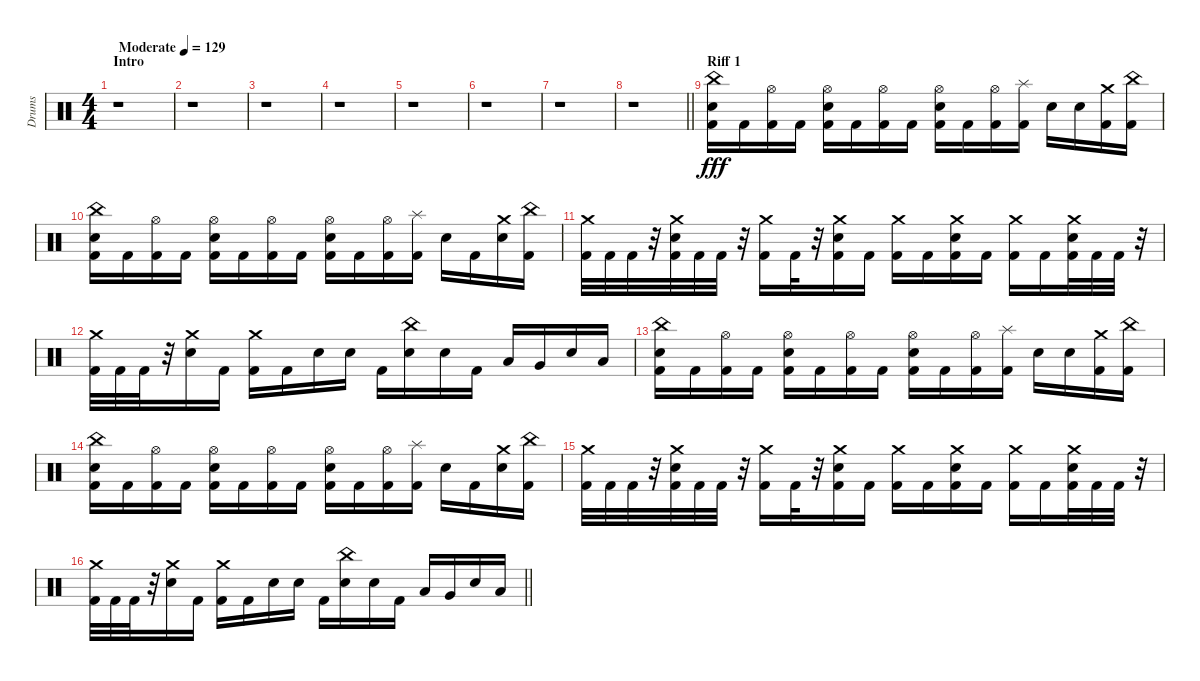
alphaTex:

\track ("Drums" "Drums") {instrument percussion}
\staff {score}
\articulation defaults
\ts (4 4)
\section ("" "Intro")
\tempo (129 "Moderate")
\clef neutral
\ks c
r.1{dy fff} |
r.1 |
r.1 |
r.1 |
r.1 |
r.1 |
r.1 |
\barLineRight lightlight
r.1 |
\section ("" "Riff 1")
("Kick (hit) 2" "Snare (hit) 2" "China (hit)").16 "Kick (hit) 2".16 ("Kick (hit) 2" "Hi-Hat (open)").16 "Kick (hit) 2".16 ("Kick (hit) 2" "Snare (hit) 2" "Hi-Hat (open)").16 "Kick (hit) 2".16 ("Kick (hit) 2" "Hi-Hat (open)").16 "Kick (hit) 2".16 ("Kick (hit) 2" "Snare (hit) 2" "Hi-Hat (open)").16 "Kick (hit) 2".16 ("Kick (hit) 2" "Hi-Hat (open)").16 ("Kick (hit) 2" "Splash (hit)").16 "Snare (hit) 2".16 "Snare (hit) 2".16 ("Kick (hit) 2" "Crash medium (hit)").16 ("Kick (hit) 2" "China (hit)").16 |
("Kick (hit) 2" "Snare (hit) 2" "China (hit)").16 "Kick (hit) 2".16 ("Kick (hit) 2" "Hi-Hat (open)").16 "Kick (hit) 2".16 ("Kick (hit) 2" "Snare (hit) 2" "Hi-Hat (open)").16 "Kick (hit) 2".16 ("Kick (hit) 2" "Hi-Hat (open)").16 "Kick (hit) 2".16 ("Kick (hit) 2" "Snare (hit) 2" "Hi-Hat (open)").16 "Kick (hit) 2".16 ("Kick (hit) 2" "Hi-Hat (open)").16 ("Kick (hit) 2" "Splash (hit)").16 "Snare (hit) 2".16 "Kick (hit) 2".16 ("Snare (hit) 2" "Crash medium (hit)").16 ("Kick (hit) 2" "China (hit)").16 |
("Kick (hit) 2" "Crash medium (hit)").32 "Kick (hit) 2".32 "Kick (hit) 2".32 r.32 ("Kick (hit) 2" "Snare (hit) 2" "Crash medium (hit)").32 "Kick (hit) 2".32 "Kick (hit) 2".32 r.32 ("Kick (hit) 2" "Crash medium (hit)").16 "Kick (hit) 2".32 r.32 ("Kick (hit) 2" "Snare (hit) 2" "Crash medium (hit)").16 "Kick (hit) 2".16 ("Kick (hit) 2" "Crash medium (hit)").16 "Kick (hit) 2".16 ("Kick (hit) 2" "Snare (hit) 2" "Crash medium (hit)").16 "Kick (hit) 2".16 ("Kick (hit) 2" "Crash medium (hit)").16 "Kick (hit) 2".16 ("Kick (hit) 2" "Snare (hit) 2" "Crash medium (hit)").32 "Kick (hit) 2".32 "Kick (hit) 2".32 r.32 |
("Kick (hit) 2" "Crash medium (hit)").32 "Kick (hit) 2".32 "Kick (hit) 2".32 r.32 ("Snare (hit) 2" "Crash medium (hit)").16 "Kick (hit) 2".16 ("Kick (hit) 2" "Crash medium (hit)").16 "Kick (hit) 2".16 "Snare (hit) 2".16 "Snare (hit) 2".16 "Kick (hit) 2".16 ("Snare (hit) 2" "China (hit)").16 "Snare (hit) 2".16 "Kick (hit) 2".16 "Low Tom (hit)".16 "Very Low Tom (hit)".16 "Snare (hit) 2".16 "Low Floor Tom (hit)".16 |
("Kick (hit) 2" "Snare (hit) 2" "China (hit)").16 "Kick (hit) 2".16 ("Kick (hit) 2" "Hi-Hat (open)").16 "Kick (hit) 2".16 ("Kick (hit) 2" "Snare (hit) 2" "Hi-Hat (open)").16 "Kick (hit) 2".16 ("Kick (hit) 2" "Hi-Hat (open)").16 "Kick (hit) 2".16 ("Kick (hit) 2" "Snare (hit) 2" "Hi-Hat (open)").16 "Kick (hit) 2".16 ("Kick (hit) 2" "Hi-Hat (open)").16 ("Kick (hit) 2" "Splash (hit)").16 "Snare (hit) 2".16 "Snare (hit) 2".16 ("Kick (hit) 2" "Crash medium (hit)").16 ("Kick (hit) 2" "China (hit)").16 |
("Kick (hit) 2" "Snare (hit) 2" "China (hit)").16 "Kick (hit) 2".16 ("Kick (hit) 2" "Hi-Hat (open)").16 "Kick (hit) 2".16 ("Kick (hit) 2" "Snare (hit) 2" "Hi-Hat (open)").16 "Kick (hit) 2".16 ("Kick (hit) 2" "Hi-Hat (open)").16 "Kick (hit) 2".16 ("Kick (hit) 2" "Snare (hit) 2" "Hi-Hat (open)").16 "Kick (hit) 2".16 ("Kick (hit) 2" "Hi-Hat (open)").16 ("Kick (hit) 2" "Splash (hit)").16 "Snare (hit) 2".16 "Kick (hit) 2".16 ("Snare (hit) 2" "Crash medium (hit)").16 ("Kick (hit) 2" "China (hit)").16 |
("Kick (hit) 2" "Crash medium (hit)").32 "Kick (hit) 2".32 "Kick (hit) 2".32 r.32 ("Kick (hit) 2" "Snare (hit) 2" "Crash medium (hit)").32 "Kick (hit) 2".32 "Kick (hit) 2".32 r.32 ("Kick (hit) 2" "Crash medium (hit)").16 "Kick (hit) 2".32 r.32 ("Kick (hit) 2" "Snare (hit) 2" "Crash medium (hit)").16 "Kick (hit) 2".16 ("Kick (hit) 2" "Crash medium (hit)").16 "Kick (hit) 2".16 ("Kick (hit) 2" "Snare (hit) 2" "Crash medium (hit)").16 "Kick (hit) 2".16 ("Kick (hit) 2" "Crash medium (hit)").16 "Kick (hit) 2".16 ("Kick (hit) 2" "Snare (hit) 2" "Crash medium (hit)").32 "Kick (hit) 2".32 "Kick (hit) 2".32 r.32 |
\barLineRight lightlight
("Kick (hit) 2" "Crash medium (hit)").32 "Kick (hit) 2".32 "Kick (hit) 2".32 r.32 ("Snare (hit) 2" "Crash medium (hit)").16 "Kick (hit) 2".16 ("Kick (hit) 2" "Crash medium (hit)").16 "Kick (hit) 2".16 "Snare (hit) 2".16 "Snare (hit) 2".16 "Kick (hit) 2".16 ("Snare (hit) 2" "China (hit)").16 "Snare (hit) 2".16 "Kick (hit) 2".16 "Low Tom (hit)".16 "Very Low Tom (hit)".16 "Snare (hit) 2".16 "Low Floor Tom (hit)".16
